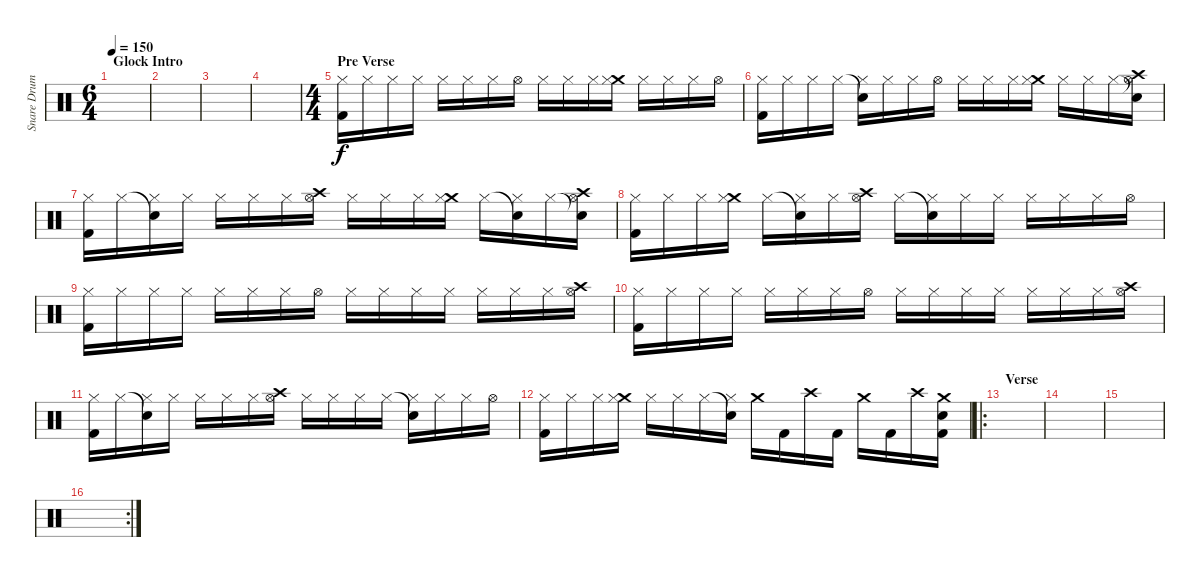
\track ("Snare Drum" "Snare Drum") {instrument percussion}
\staff {score}
\articulation defaults
\ts (6 4)
\section ("" "Glock Intro")
\tempo 150
\tempo 120
\tempo 150
\clef neutral
\ks c
|
|
|
|
\ts (4 4)
\section ("" "Pre Verse")
("Hi-Hat (closed)" "Kick (hit) 2").16 "Hi-Hat (closed)".16 "Hi-Hat (closed)".16 "Hi-Hat (closed)".16 "Hi-Hat (closed)".16 "Hi-Hat (closed)".16 "Hi-Hat (closed)".16 "Hi-Hat (open)".16 "Hi-Hat (closed)".16 "Hi-Hat (closed)".16 "Hi-Hat (closed)".16 ("Crash medium (hit)" "Hi-Hat (closed)").16 "Hi-Hat (closed)".16 "Hi-Hat (closed)".16 "Hi-Hat (closed)".16 "Hi-Hat (open)".16 |
("Hi-Hat (closed)" "Kick (hit) 2").16 "Hi-Hat (closed)".16 "Hi-Hat (closed)".16 "Hi-Hat (closed)".16 ("Snare (hit)"{t} "Hi-Hat (closed)").16 "Hi-Hat (closed)".16 "Hi-Hat (closed)".16 "Hi-Hat (open)".16 "Hi-Hat (closed)".16 "Hi-Hat (closed)".16 "Hi-Hat (closed)".16 ("Crash medium (hit)" "Hi-Hat (closed)").16 "Hi-Hat (closed)".16 "Hi-Hat (closed)".16 "Hi-Hat (closed)".16 ("Snare (hit)"{t} "Crash high (hit)" "Hi-Hat (open)").16 |
("Hi-Hat (closed)" "Kick (hit) 2").16 "Hi-Hat (closed)".16 ("Snare (hit)"{t} "Hi-Hat (closed)").16 "Hi-Hat (closed)".16 "Hi-Hat (closed)".16 "Hi-Hat (closed)".16 "Hi-Hat (closed)".16 ("Crash high (hit)" "Hi-Hat (open)").16 "Hi-Hat (closed)".16 "Hi-Hat (closed)".16 "Hi-Hat (closed)".16 ("Crash medium (hit)" "Hi-Hat (closed)").16 "Hi-Hat (closed)".16 ("Snare (hit)"{t} "Hi-Hat (closed)").16 "Hi-Hat (closed)".16 ("Snare (hit)"{t} "Crash high (hit)" "Hi-Hat (open)").16 |
("Hi-Hat (closed)" "Kick (hit) 2").16 "Hi-Hat (closed)".16 "Hi-Hat (closed)".16 ("Crash medium (hit)" "Hi-Hat (closed)").16 "Hi-Hat (closed)".16 ("Snare (hit)"{t} "Hi-Hat (closed)").16 "Hi-Hat (closed)".16 ("Crash high (hit)" "Hi-Hat (open)").16 "Hi-Hat (closed)".16 ("Snare (hit)"{t} "Hi-Hat (closed)").16 "Hi-Hat (closed)".16 "Hi-Hat (closed)".16 "Hi-Hat (closed)".16 "Hi-Hat (closed)".16 "Hi-Hat (closed)".16 "Hi-Hat (open)".16 |
("Hi-Hat (closed)" "Kick (hit) 2").16 "Hi-Hat (closed)".16 "Hi-Hat (closed)".16 "Hi-Hat (closed)".16 "Hi-Hat (closed)".16 "Hi-Hat (closed)".16 "Hi-Hat (closed)".16 "Hi-Hat (open)".16 "Hi-Hat (closed)".16 "Hi-Hat (closed)".16 "Hi-Hat (closed)".16 "Hi-Hat (closed)".16 "Hi-Hat (closed)".16 "Hi-Hat (closed)".16 "Hi-Hat (closed)".16 ("Crash high (hit)" "Hi-Hat (open)").16 |
("Hi-Hat (closed)" "Kick (hit) 2").16 "Hi-Hat (closed)".16 "Hi-Hat (closed)".16 "Hi-Hat (closed)".16 "Hi-Hat (closed)".16 "Hi-Hat (closed)".16 "Hi-Hat (closed)".16 "Hi-Hat (open)".16 "Hi-Hat (closed)".16 "Hi-Hat (closed)".16 "Hi-Hat (closed)".16 "Hi-Hat (closed)".16 "Hi-Hat (closed)".16 "Hi-Hat (closed)".16 "Hi-Hat (closed)".16 ("Crash high (hit)" "Hi-Hat (open)").16 |
("Hi-Hat (closed)" "Kick (hit) 2").16 "Hi-Hat (closed)".16 ("Snare (hit)"{t} "Hi-Hat (closed)").16 "Hi-Hat (closed)".16 "Hi-Hat (closed)".16 "Hi-Hat (closed)".16 "Hi-Hat (closed)".16 ("Crash high (hit)" "Hi-Hat (open)").16 "Hi-Hat (closed)".16 "Hi-Hat (closed)".16 "Hi-Hat (closed)".16 "Hi-Hat (closed)".16 ("Snare (hit)"{t} "Hi-Hat (closed)").16 "Hi-Hat (closed)".16 "Hi-Hat (closed)".16 "Hi-Hat (open)".16 |
("Hi-Hat (closed)" "Kick (hit) 2").16 "Hi-Hat (closed)".16 "Hi-Hat (closed)".16 ("Crash medium (hit)" "Hi-Hat (closed)").16 "Hi-Hat (closed)".16 "Hi-Hat (closed)".16 "Hi-Hat (closed)".16 ("Snare (hit)"{t} "Hi-Hat (closed)").16 "Crash medium (hit)".16 "Kick (hit) 2".16 "Crash high (hit)".16 "Kick (hit) 2".16 "Crash medium (hit)".16 "Kick (hit) 2".16 "Crash high (hit)".16 ("Crash medium (hit)" "Snare (hit) 2" "Kick (hit) 2").16 |
\ro
\section ("" "Verse")
|
|
|
\rc 2
